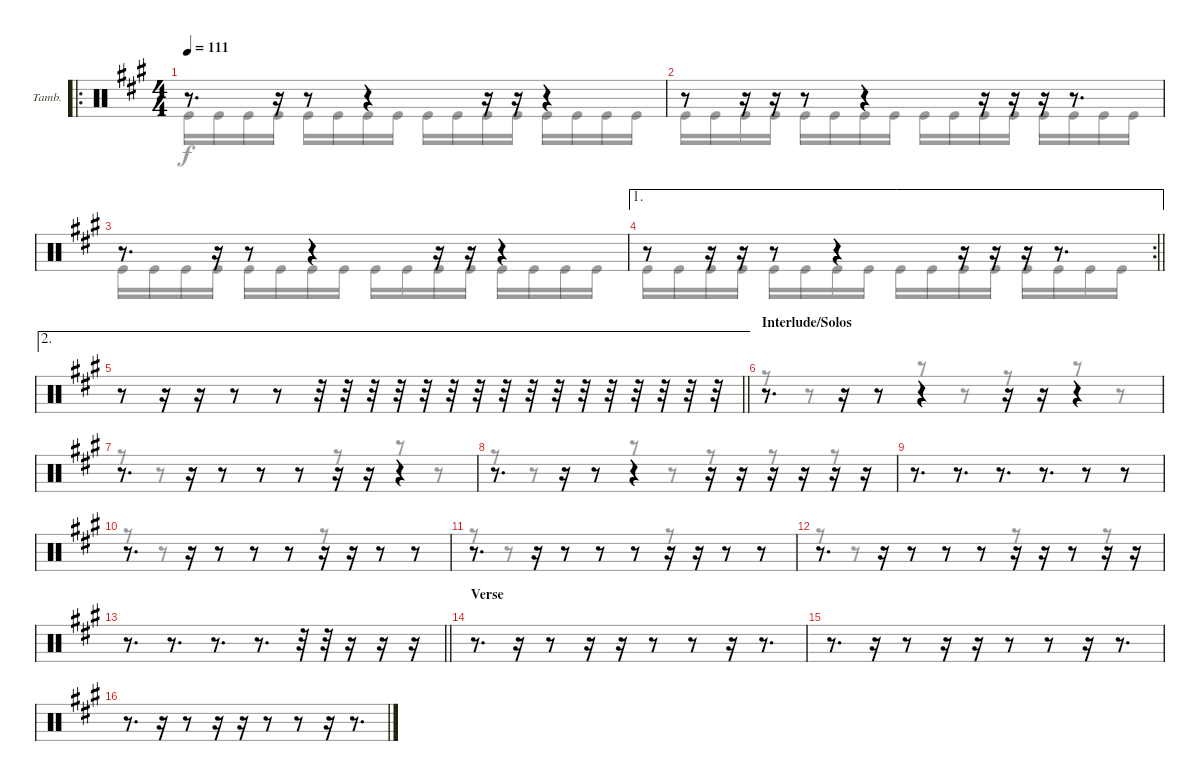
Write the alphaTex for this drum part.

\bracketExtendMode groupsimilarinstruments
\firstSystemTrackNameOrientation horizontal
\otherSystemsTrackNameOrientation horizontal
\track ("Tambourine" "Tamb.") {instrument percussion}
\staff {score}
\articulation defaults
\voice
\ro
\ts (4 4)
\tempo 111
\clef neutral
\ks a
r.8{d dy fff} r.16 r.8 r.4 r.16 r.16 r.4 |
r.8 r.16 r.16 r.8 r.4 r.16 r.16 r.16 r.8{d} |
r.8{d} r.16 r.8 r.4 r.16 r.16 r.4 |
\ae 1
\rc 2
\barLineRight lightlight
r.8 r.16 r.16 r.8 r.4 r.16 r.16 r.16 r.8{d} |
\ae 2
\barLineRight lightlight
r.8 r.16 r.16 r.8 r.8 r.32{dy f} r.32 r.32 r.32 r.32 r.32 r.32 r.32 r.32 r.32 r.32 r.32 r.32 r.32 r.32 r.32 |
\section ("" "Interlude/Solos")
r.8{d dy fff} r.16 r.8 r.4 r.16 r.16 r.4 |
r.8{d} r.16 r.8 r.8 r.8 r.16{dy mf} r.16{dy f} r.4{dy fff} |
r.8{d} r.16 r.8 r.4 r.16{dy mf} r.16{dy f} r.16{dy fff} r.16{dy f} r.16 r.16 |
r.8{d dy fff} r.8{d} r.8{d} r.8{d} r.8 r.8 |
r.8{d} r.16 r.8 r.8 r.8 r.16{dy mf} r.16{dy f} r.8{dy fff} r.8 |
r.8{d} r.16 r.8 r.8 r.8 r.16{dy mf} r.16{dy f} r.8{dy fff} r.8 |
r.8{d} r.16 r.8 r.8 r.8 r.16{dy mf} r.16{dy f} r.8{dy fff} r.16 r.16{dy f} |
\barLineRight lightlight
r.8{d dy fff} r.8{d} r.8{d} r.8{d} r.32 r.32 r.16 r.16 r.16 |
\section ("" "Verse")
r.8{d} r.16 r.8 r.16 r.16 r.8 r.8 r.16 r.8{d} |
r.8{d} r.16 r.8 r.16 r.16 r.8 r.8 r.16 r.8{d} |
r.8{d} r.16 r.8 r.16 r.16 r.8 r.8 r.16 r.8{d}
\voice
\clef neutral
\ottava regular
\simile none
\ks a "Kick (hit)".16{dy f} "Kick (hit)".16 "Kick (hit)".16 "Kick (hit)".16 "Kick (hit)".16 "Kick (hit)".16 "Kick (hit)".16 "Kick (hit)".16 "Kick (hit)".16 "Kick (hit)".16 "Kick (hit)".16 "Kick (hit)".16 "Kick (hit)".16 "Kick (hit)".16 "Kick (hit)".16 "Kick (hit)".16
|
"Kick (hit)".16 "Kick (hit)".16 "Kick (hit)".16 "Kick (hit)".16 "Kick (hit)".16 "Kick (hit)".16 "Kick (hit)".16 "Kick (hit)".16 "Kick (hit)".16 "Kick (hit)".16 "Kick (hit)".16 "Kick (hit)".16 "Kick (hit)".16 "Kick (hit)".16 "Kick (hit)".16 "Kick (hit)".16 |
"Kick (hit)".16 "Kick (hit)".16 "Kick (hit)".16 "Kick (hit)".16 "Kick (hit)".16 "Kick (hit)".16 "Kick (hit)".16 "Kick (hit)".16 "Kick (hit)".16 "Kick (hit)".16 "Kick (hit)".16 "Kick (hit)".16 "Kick (hit)".16 "Kick (hit)".16 "Kick (hit)".16 "Kick (hit)".16 |
\barLineRight lightlight "Kick (hit)".16 "Kick (hit)".16 "Kick (hit)".16 "Kick (hit)".16 "Kick (hit)".16 "Kick (hit)".16 "Kick (hit)".16 "Kick (hit)".16 "Kick (hit)".16 "Kick (hit)".16 "Kick (hit)".16 "Kick (hit)".16 "Kick (hit)".16 "Kick (hit)".16 "Kick (hit)".16 "Kick (hit)".16
|
\barLineRight lightlight
|
r.8 r.8 r.8 r.8 r.8 r.8 r.8 r.8 |
r.8 r.8 r.8 r.8 r.8 r.8 r.8 r.8 |
r.8 r.8 r.8 r.8 r.8 r.8 r.8 r.8 |
|
r.8 r.8 r.8 r.8 r.8 r.8 r.8 r.8 |
r.8 r.8 r.8 r.8 r.8 r.8 r.8 r.8 |
r.8 r.8 r.8 r.8 r.8 r.8 r.8 r.8 |
\barLineRight lightlight
|
|
|
